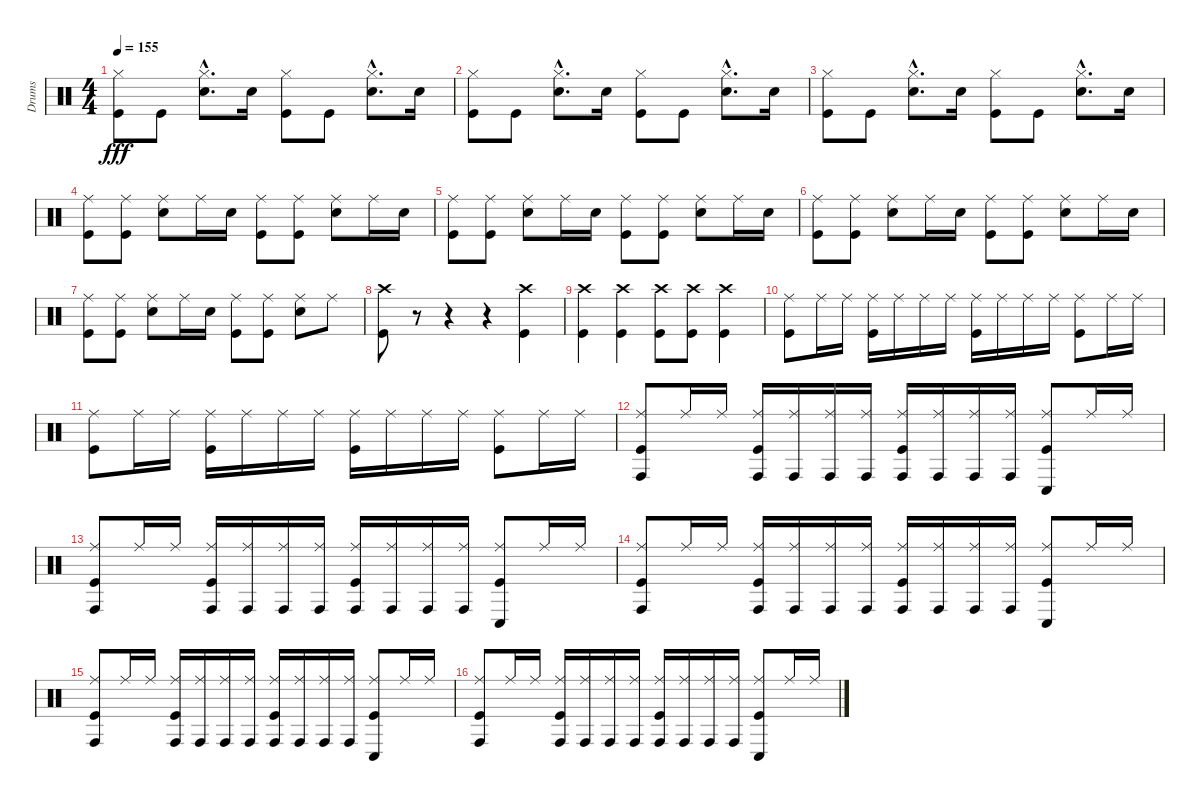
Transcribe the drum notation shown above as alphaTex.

\track ("Drums" "Drums") {instrument percussion}
\staff {score}
\articulation defaults
\ts (4 4)
\tempo 155
\clef neutral
\ks c
("Hi-Hat (closed)" "Kick (hit)").8{dy fff} "Kick (hit)".8 ("Hi-Hat (closed)"{hac} "Snare (hit) 2"{hac}).8{d} "Snare (hit) 2".16 ("Hi-Hat (closed)" "Kick (hit)").8 "Kick (hit)".8 ("Hi-Hat (closed)"{hac} "Snare (hit) 2"{hac}).8{d} "Snare (hit) 2".16 |
("Hi-Hat (closed)" "Kick (hit)").8 "Kick (hit)".8 ("Hi-Hat (closed)"{hac} "Snare (hit) 2"{hac}).8{d} "Snare (hit) 2".16 ("Hi-Hat (closed)" "Kick (hit)").8 "Kick (hit)".8 ("Hi-Hat (closed)"{hac} "Snare (hit) 2"{hac}).8{d} "Snare (hit) 2".16 |
("Hi-Hat (closed)" "Kick (hit)").8 "Kick (hit)".8 ("Hi-Hat (closed)"{hac} "Snare (hit) 2"{hac}).8{d} "Snare (hit) 2".16 ("Hi-Hat (closed)" "Kick (hit)").8 "Kick (hit)".8 ("Hi-Hat (closed)"{hac} "Snare (hit) 2"{hac}).8{d} "Snare (hit) 2".16 |
("Ride (middle)" "Kick (hit)").8 ("Ride (middle)" "Kick (hit)").8 ("Ride (middle)" "Snare (hit) 2").8 "Ride (middle)".16 "Snare (hit) 2".16 ("Ride (middle)" "Kick (hit)").8 ("Ride (middle)" "Kick (hit)").8 ("Ride (middle)" "Snare (hit) 2").8 "Ride (middle)".16 "Snare (hit) 2".16 |
("Ride (middle)" "Kick (hit)").8 ("Ride (middle)" "Kick (hit)").8 ("Ride (middle)" "Snare (hit) 2").8 "Ride (middle)".16 "Snare (hit) 2".16 ("Ride (middle)" "Kick (hit)").8 ("Ride (middle)" "Kick (hit)").8 ("Ride (middle)" "Snare (hit) 2").8 "Ride (middle)".16 "Snare (hit) 2".16 |
("Ride (middle)" "Kick (hit)").8 ("Ride (middle)" "Kick (hit)").8 ("Ride (middle)" "Snare (hit) 2").8 "Ride (middle)".16 "Snare (hit) 2".16 ("Ride (middle)" "Kick (hit)").8 ("Ride (middle)" "Kick (hit)").8 ("Ride (middle)" "Snare (hit) 2").8 "Ride (middle)".16 "Snare (hit) 2".16 |
("Ride (middle)" "Kick (hit)").8 ("Ride (middle)" "Kick (hit)").8 ("Ride (middle)" "Snare (hit) 2").8 "Ride (middle)".16 "Snare (hit) 2".16 ("Ride (middle)" "Kick (hit)").8 ("Ride (middle)" "Kick (hit)").8 ("Ride (middle)" "Snare (hit) 2").8 "Ride (middle)".8 |
("Crash high (hit)" "Kick (hit)").8 r.8 r.4 r.4 ("Crash high (hit)" "Kick (hit)").4 |
("Crash high (hit)" "Kick (hit)").4 ("Crash high (hit)" "Kick (hit)").4 ("Crash high (hit)" "Kick (hit)").8 ("Crash high (hit)" "Kick (hit)").8 ("Crash high (hit)" "Kick (hit)").4 |
("Ride (middle)" "Kick (hit)").8 "Ride (middle)".16 "Ride (middle)".16 ("Ride (middle)" "Kick (hit)").16 "Ride (middle)".16 "Ride (middle)".16 "Ride (middle)".16 ("Ride (middle)" "Kick (hit)").16 "Ride (middle)".16 "Ride (middle)".16 "Ride (middle)".16 ("Ride (middle)" "Kick (hit)").8 "Ride (middle)".16 "Ride (middle)".16 |
("Ride (middle)" "Kick (hit)").8 "Ride (middle)".16 "Ride (middle)".16 ("Ride (middle)" "Kick (hit)").16 "Ride (middle)".16 "Ride (middle)".16 "Ride (middle)".16 ("Ride (middle)" "Kick (hit)").16 "Ride (middle)".16 "Ride (middle)".16 "Ride (middle)".16 ("Ride (middle)" "Kick (hit)").8 "Ride (middle)".16 "Ride (middle)".16 |
("Ride (middle)" "Conga high (hit)" "Kick (hit)").8 "Ride (middle)".16 "Ride (middle)".16 ("Ride (middle)" "Conga high (hit)" "Kick (hit)").16 ("Ride (middle)" "Conga high (hit)").16 ("Ride (middle)" "Conga high (hit)").16 ("Ride (middle)" "Conga high (hit)").16 ("Ride (middle)" "Conga high (hit)" "Kick (hit)").16 ("Ride (middle)" "Conga high (hit)").16 ("Ride (middle)" "Conga high (hit)").16 ("Ride (middle)" "Conga high (hit)").16 ("Ride (middle)" "Conga low (hit)" "Kick (hit)").8 "Ride (middle)".16 "Ride (middle)".16 |
("Ride (middle)" "Conga high (hit)" "Kick (hit)").8 "Ride (middle)".16 "Ride (middle)".16 ("Ride (middle)" "Conga high (hit)" "Kick (hit)").16 ("Ride (middle)" "Conga high (hit)").16 ("Ride (middle)" "Conga high (hit)").16 ("Ride (middle)" "Conga high (hit)").16 ("Ride (middle)" "Conga high (hit)" "Kick (hit)").16 ("Ride (middle)" "Conga high (hit)").16 ("Ride (middle)" "Conga high (hit)").16 ("Ride (middle)" "Conga high (hit)").16 ("Ride (middle)" "Conga low (hit)" "Kick (hit)").8 "Ride (middle)".16 "Ride (middle)".16 |
("Ride (middle)" "Conga high (hit)" "Kick (hit)").8 "Ride (middle)".16 "Ride (middle)".16 ("Ride (middle)" "Conga high (hit)" "Kick (hit)").16 ("Ride (middle)" "Conga high (hit)").16 ("Ride (middle)" "Conga high (hit)").16 ("Ride (middle)" "Conga high (hit)").16 ("Ride (middle)" "Conga high (hit)" "Kick (hit)").16 ("Ride (middle)" "Conga high (hit)").16 ("Ride (middle)" "Conga high (hit)").16 ("Ride (middle)" "Conga high (hit)").16 ("Ride (middle)" "Conga low (hit)" "Kick (hit)").8 "Ride (middle)".16 "Ride (middle)".16 |
("Ride (middle)" "Conga high (hit)" "Kick (hit)").8 "Ride (middle)".16 "Ride (middle)".16 ("Ride (middle)" "Conga high (hit)" "Kick (hit)").16 ("Ride (middle)" "Conga high (hit)").16 ("Ride (middle)" "Conga high (hit)").16 ("Ride (middle)" "Conga high (hit)").16 ("Ride (middle)" "Conga high (hit)" "Kick (hit)").16 ("Ride (middle)" "Conga high (hit)").16 ("Ride (middle)" "Conga high (hit)").16 ("Ride (middle)" "Conga high (hit)").16 ("Ride (middle)" "Conga low (hit)" "Kick (hit)").8 "Ride (middle)".16 "Ride (middle)".16 |
("Ride (middle)" "Conga high (hit)" "Kick (hit)").8 "Ride (middle)".16 "Ride (middle)".16 ("Ride (middle)" "Conga high (hit)" "Kick (hit)").16 ("Ride (middle)" "Conga high (hit)").16 ("Ride (middle)" "Conga high (hit)").16 ("Ride (middle)" "Conga high (hit)").16 ("Ride (middle)" "Conga high (hit)" "Kick (hit)").16 ("Ride (middle)" "Conga high (hit)").16 ("Ride (middle)" "Conga high (hit)").16 ("Ride (middle)" "Conga high (hit)").16 ("Ride (middle)" "Conga low (hit)" "Kick (hit)").8 "Ride (middle)".16 "Ride (middle)".16
